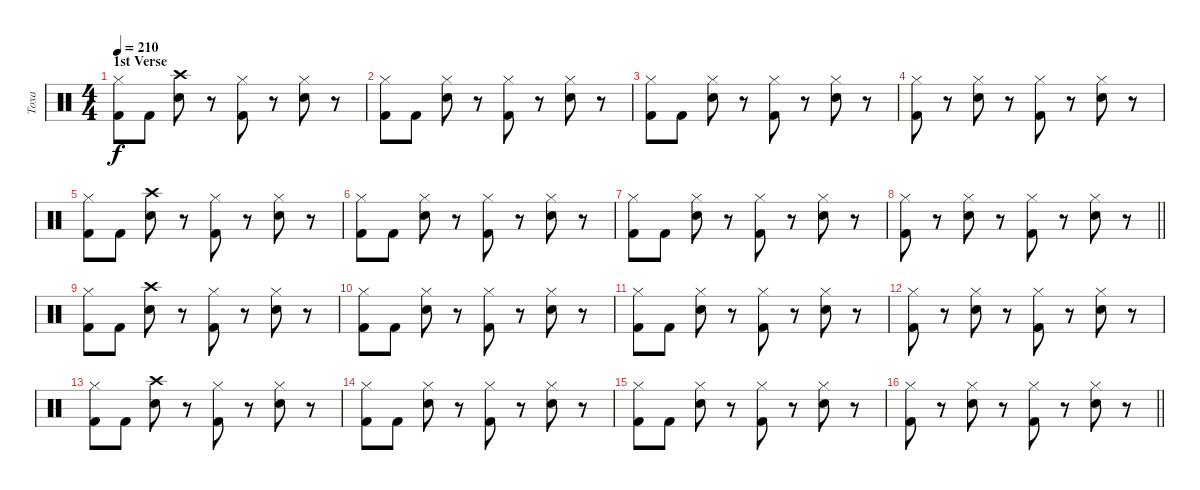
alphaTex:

\track ("Toxa" "Toxa") {instrument percussion}
\staff {score}
\articulation defaults
\ts (4 4)
\section ("" "1st Verse")
\tempo 210
\clef neutral
\ks c
("Kick (hit) 2" "Hi-Hat (closed)").8{dy f} "Kick (hit) 2".8 ("Snare (hit) 2" "Crash high (hit)").8 r.8 ("Kick (hit) 2" "Hi-Hat (closed)").8 r.8 ("Snare (hit) 2" "Hi-Hat (closed)").8 r.8 |
("Kick (hit) 2" "Hi-Hat (closed)").8 "Kick (hit) 2".8 ("Snare (hit) 2" "Hi-Hat (closed)").8 r.8 ("Kick (hit) 2" "Hi-Hat (closed)").8 r.8 ("Snare (hit) 2" "Hi-Hat (closed)").8 r.8 |
("Kick (hit) 2" "Hi-Hat (closed)").8 "Kick (hit) 2".8 ("Snare (hit) 2" "Hi-Hat (closed)").8 r.8 ("Kick (hit) 2" "Hi-Hat (closed)").8 r.8 ("Snare (hit) 2" "Hi-Hat (closed)").8 r.8 |
("Kick (hit) 2" "Hi-Hat (closed)").8 r.8 ("Snare (hit) 2" "Hi-Hat (closed)").8 r.8 ("Kick (hit) 2" "Hi-Hat (closed)").8 r.8 ("Snare (hit) 2" "Hi-Hat (closed)").8 r.8 |
("Kick (hit) 2" "Hi-Hat (closed)").8 "Kick (hit) 2".8 ("Snare (hit) 2" "Crash high (hit)").8 r.8 ("Kick (hit) 2" "Hi-Hat (closed)").8 r.8 ("Snare (hit) 2" "Hi-Hat (closed)").8 r.8 |
("Kick (hit) 2" "Hi-Hat (closed)").8 "Kick (hit) 2".8 ("Snare (hit) 2" "Hi-Hat (closed)").8 r.8 ("Kick (hit) 2" "Hi-Hat (closed)").8 r.8 ("Snare (hit) 2" "Hi-Hat (closed)").8 r.8 |
("Kick (hit) 2" "Hi-Hat (closed)").8 "Kick (hit) 2".8 ("Snare (hit) 2" "Hi-Hat (closed)").8 r.8 ("Kick (hit) 2" "Hi-Hat (closed)").8 r.8 ("Snare (hit) 2" "Hi-Hat (closed)").8 r.8 |
\barLineRight lightlight
("Kick (hit) 2" "Hi-Hat (closed)").8 r.8 ("Snare (hit) 2" "Hi-Hat (closed)").8 r.8 ("Kick (hit) 2" "Hi-Hat (closed)").8 r.8 ("Snare (hit) 2" "Hi-Hat (closed)").8 r.8 |
("Kick (hit) 2" "Hi-Hat (closed)").8 "Kick (hit) 2".8 ("Snare (hit) 2" "Crash high (hit)").8 r.8 ("Kick (hit) 2" "Hi-Hat (closed)").8 r.8 ("Snare (hit) 2" "Hi-Hat (closed)").8 r.8 |
("Kick (hit) 2" "Hi-Hat (closed)").8 "Kick (hit) 2".8 ("Snare (hit) 2" "Hi-Hat (closed)").8 r.8 ("Kick (hit) 2" "Hi-Hat (closed)").8 r.8 ("Snare (hit) 2" "Hi-Hat (closed)").8 r.8 |
("Kick (hit) 2" "Hi-Hat (closed)").8 "Kick (hit) 2".8 ("Snare (hit) 2" "Hi-Hat (closed)").8 r.8 ("Kick (hit) 2" "Hi-Hat (closed)").8 r.8 ("Snare (hit) 2" "Hi-Hat (closed)").8 r.8 |
("Kick (hit) 2" "Hi-Hat (closed)").8 r.8 ("Snare (hit) 2" "Hi-Hat (closed)").8 r.8 ("Kick (hit) 2" "Hi-Hat (closed)").8 r.8 ("Snare (hit) 2" "Hi-Hat (closed)").8 r.8 |
("Kick (hit) 2" "Hi-Hat (closed)").8 "Kick (hit) 2".8 ("Snare (hit) 2" "Crash high (hit)").8 r.8 ("Kick (hit) 2" "Hi-Hat (closed)").8 r.8 ("Snare (hit) 2" "Hi-Hat (closed)").8 r.8 |
("Kick (hit) 2" "Hi-Hat (closed)").8 "Kick (hit) 2".8 ("Snare (hit) 2" "Hi-Hat (closed)").8 r.8 ("Kick (hit) 2" "Hi-Hat (closed)").8 r.8 ("Snare (hit) 2" "Hi-Hat (closed)").8 r.8 |
("Kick (hit) 2" "Hi-Hat (closed)").8 "Kick (hit) 2".8 ("Snare (hit) 2" "Hi-Hat (closed)").8 r.8 ("Kick (hit) 2" "Hi-Hat (closed)").8 r.8 ("Snare (hit) 2" "Hi-Hat (closed)").8 r.8 |
\barLineRight lightlight
("Kick (hit) 2" "Hi-Hat (closed)").8 r.8 ("Snare (hit) 2" "Hi-Hat (closed)").8 r.8 ("Kick (hit) 2" "Hi-Hat (closed)").8 r.8 ("Snare (hit) 2" "Hi-Hat (closed)").8 r.8
